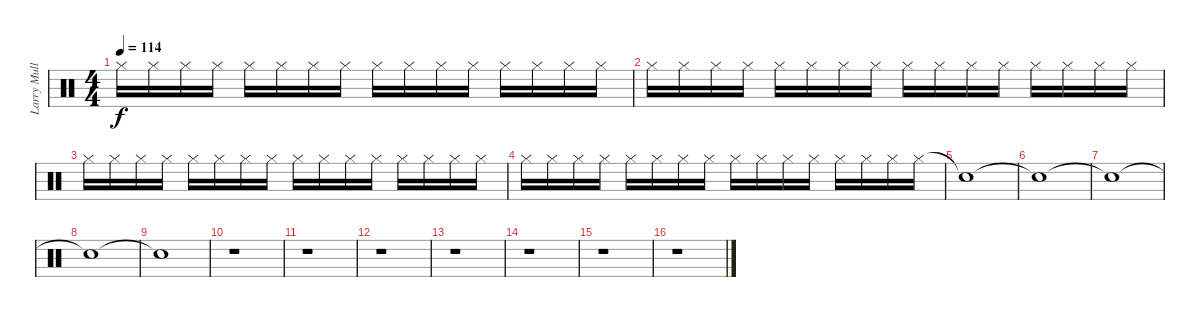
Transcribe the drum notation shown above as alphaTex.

\track ("Larry Mullen Jr suplement for midi" "Larry Mull") {instrument percussion}
\staff {score}
\articulation defaults
\ts (4 4)
\tempo 114
\clef neutral
\ks c "Hi-Hat (closed)".16{dy f} "Hi-Hat (closed)".16 "Hi-Hat (closed)".16 "Hi-Hat (closed)".16 "Hi-Hat (closed)".16 "Hi-Hat (closed)".16 "Hi-Hat (closed)".16 "Hi-Hat (closed)".16 "Hi-Hat (closed)".16 "Hi-Hat (closed)".16 "Hi-Hat (closed)".16 "Hi-Hat (closed)".16 "Hi-Hat (closed)".16 "Hi-Hat (closed)".16 "Hi-Hat (closed)".16 "Hi-Hat (closed)".16
|
"Hi-Hat (closed)".16 "Hi-Hat (closed)".16 "Hi-Hat (closed)".16 "Hi-Hat (closed)".16 "Hi-Hat (closed)".16 "Hi-Hat (closed)".16 "Hi-Hat (closed)".16 "Hi-Hat (closed)".16 "Hi-Hat (closed)".16 "Hi-Hat (closed)".16 "Hi-Hat (closed)".16 "Hi-Hat (closed)".16 "Hi-Hat (closed)".16 "Hi-Hat (closed)".16 "Hi-Hat (closed)".16 "Hi-Hat (closed)".16 |
"Hi-Hat (closed)".16 "Hi-Hat (closed)".16 "Hi-Hat (closed)".16 "Hi-Hat (closed)".16 "Hi-Hat (closed)".16 "Hi-Hat (closed)".16 "Hi-Hat (closed)".16 "Hi-Hat (closed)".16 "Hi-Hat (closed)".16 "Hi-Hat (closed)".16 "Hi-Hat (closed)".16 "Hi-Hat (closed)".16 "Hi-Hat (closed)".16 "Hi-Hat (closed)".16 "Hi-Hat (closed)".16 "Hi-Hat (closed)".16 |
"Hi-Hat (closed)".16 "Hi-Hat (closed)".16 "Hi-Hat (closed)".16 "Hi-Hat (closed)".16 "Hi-Hat (closed)".16 "Hi-Hat (closed)".16 "Hi-Hat (closed)".16 "Hi-Hat (closed)".16 "Hi-Hat (closed)".16 "Hi-Hat (closed)".16 "Hi-Hat (closed)".16 "Hi-Hat (closed)".16 "Hi-Hat (closed)".16 "Hi-Hat (closed)".16 "Hi-Hat (closed)".16 "Hi-Hat (closed)".16 |
"Snare (hit)"{t}.1 |
"Snare (hit)"{t}.1 |
"Snare (hit)"{t}.1 |
"Snare (hit)"{t}.1 |
"Snare (hit)"{t}.1 |
r.1 |
r.1 |
r.1 |
r.1 |
r.1 |
r.1 |
r.1
